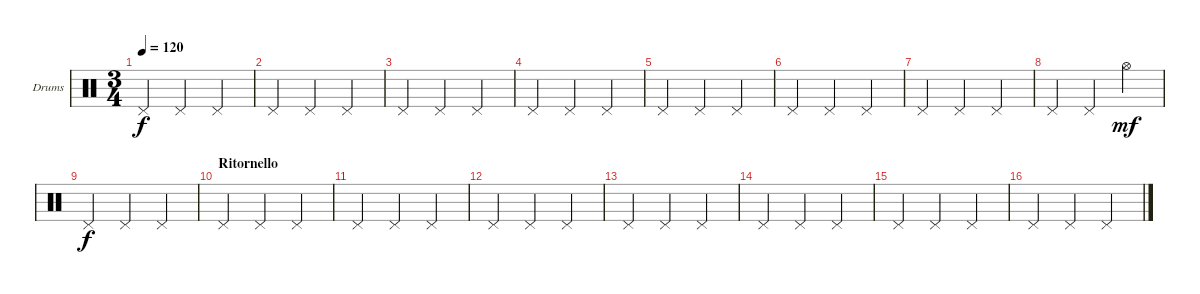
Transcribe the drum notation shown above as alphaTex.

\bracketExtendMode groupsimilarinstruments
\firstSystemTrackNameOrientation horizontal
\otherSystemsTrackNameOrientation horizontal
\track ("Drumkit" "Drums") {instrument percussion}
\staff {score}
\articulation defaults
\ts (3 4)
\tempo 120
\clef neutral
\ks c "Pedal Hi-Hat (hit)".4{dy f} "Pedal Hi-Hat (hit)".4 "Pedal Hi-Hat (hit)".4
|
"Pedal Hi-Hat (hit)".4 "Pedal Hi-Hat (hit)".4 "Pedal Hi-Hat (hit)".4 |
"Pedal Hi-Hat (hit)".4 "Pedal Hi-Hat (hit)".4 "Pedal Hi-Hat (hit)".4 |
"Pedal Hi-Hat (hit)".4 "Pedal Hi-Hat (hit)".4 "Pedal Hi-Hat (hit)".4 |
"Pedal Hi-Hat (hit)".4 "Pedal Hi-Hat (hit)".4 "Pedal Hi-Hat (hit)".4 |
"Pedal Hi-Hat (hit)".4 "Pedal Hi-Hat (hit)".4 "Pedal Hi-Hat (hit)".4 |
"Pedal Hi-Hat (hit)".4 "Pedal Hi-Hat (hit)".4 "Pedal Hi-Hat (hit)".4 |
"Pedal Hi-Hat (hit)".4 "Pedal Hi-Hat (hit)".4 "Hi-Hat (open)".4{dy mf} |
"Pedal Hi-Hat (hit)".4{dy f} "Pedal Hi-Hat (hit)".4 "Pedal Hi-Hat (hit)".4 |
\section ("" "Ritornello")
"Pedal Hi-Hat (hit)".4 "Pedal Hi-Hat (hit)".4 "Pedal Hi-Hat (hit)".4 |
"Pedal Hi-Hat (hit)".4 "Pedal Hi-Hat (hit)".4 "Pedal Hi-Hat (hit)".4 |
"Pedal Hi-Hat (hit)".4 "Pedal Hi-Hat (hit)".4 "Pedal Hi-Hat (hit)".4 |
"Pedal Hi-Hat (hit)".4 "Pedal Hi-Hat (hit)".4 "Pedal Hi-Hat (hit)".4 |
"Pedal Hi-Hat (hit)".4 "Pedal Hi-Hat (hit)".4 "Pedal Hi-Hat (hit)".4 |
"Pedal Hi-Hat (hit)".4 "Pedal Hi-Hat (hit)".4 "Pedal Hi-Hat (hit)".4 |
"Pedal Hi-Hat (hit)".4 "Pedal Hi-Hat (hit)".4 "Pedal Hi-Hat (hit)".4
